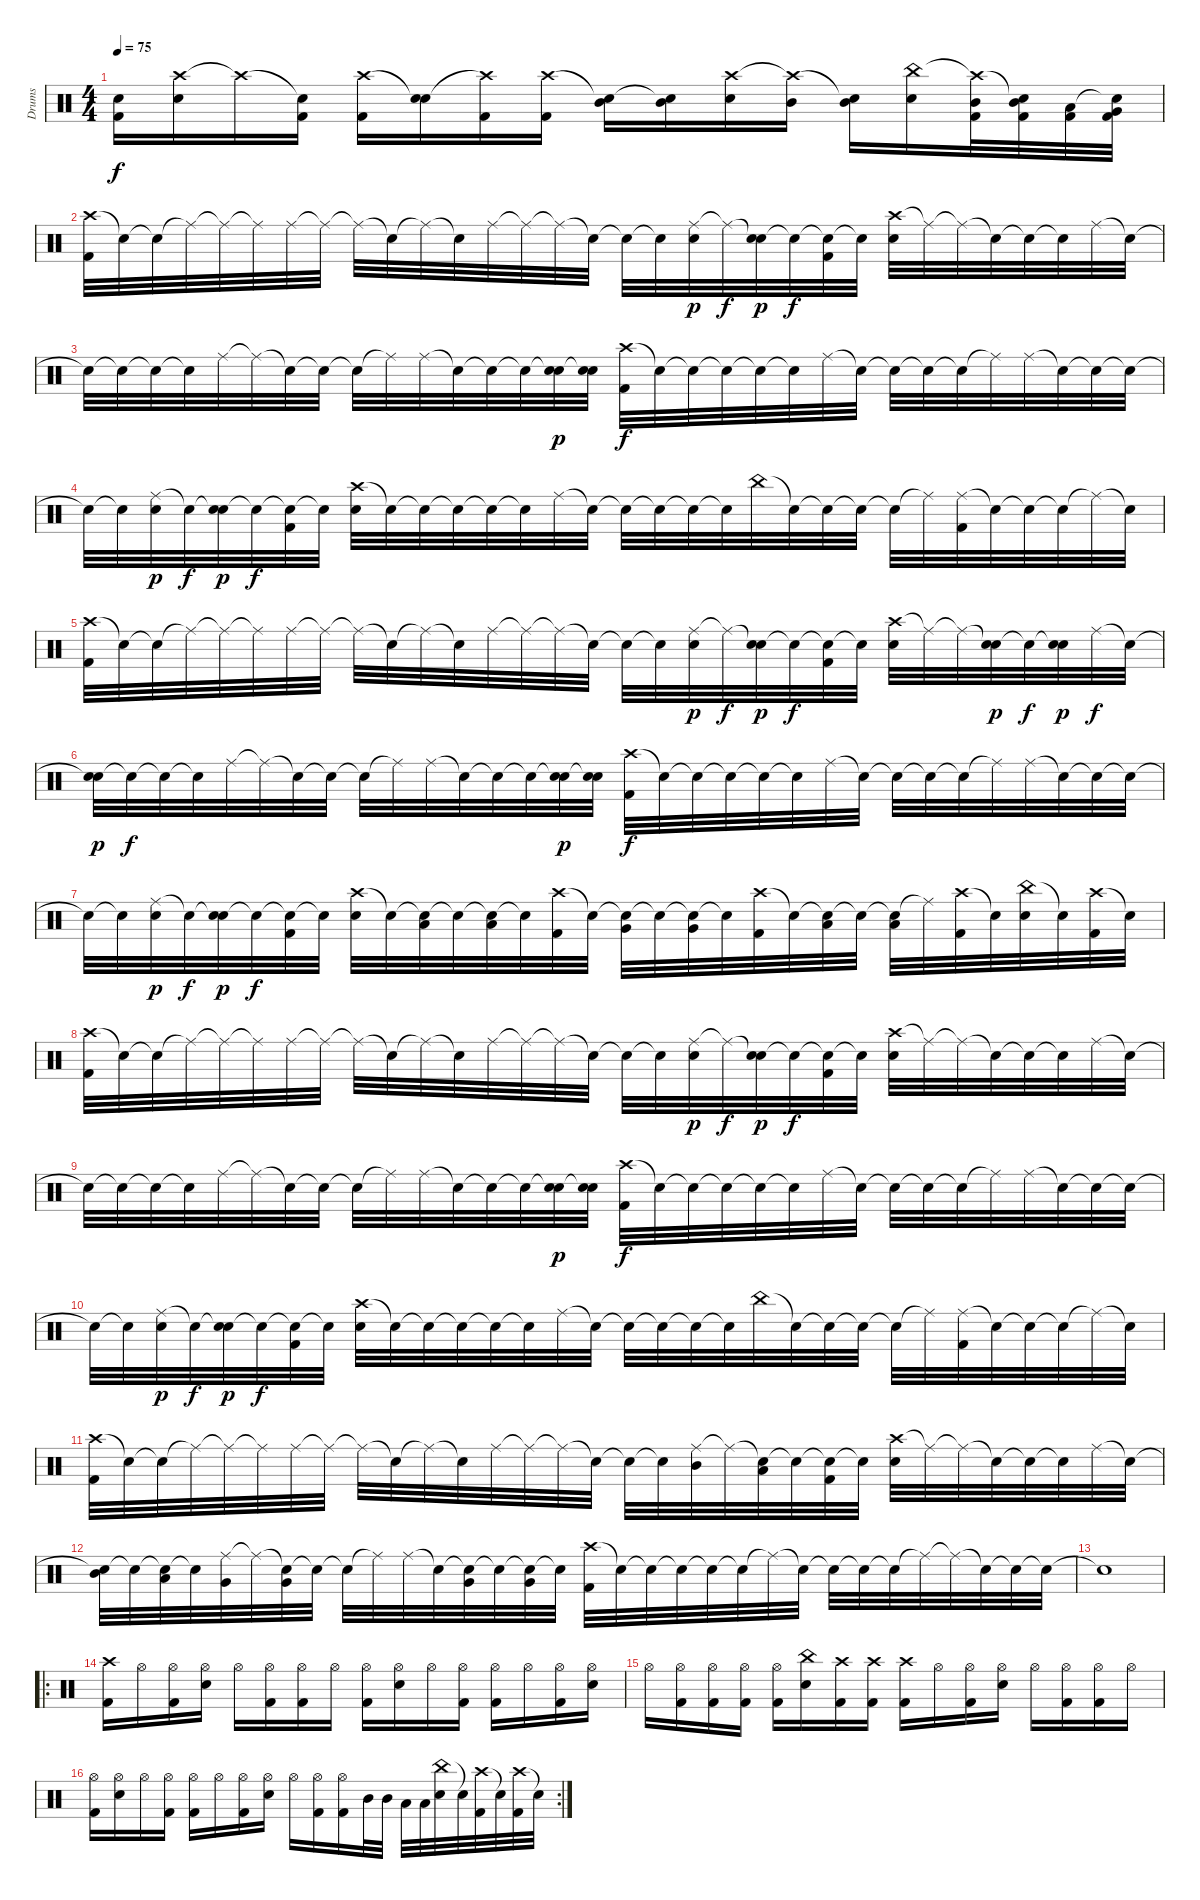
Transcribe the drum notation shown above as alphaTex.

\track ("Drums" "Drums") {instrument percussion}
\staff {score}
\articulation defaults
\ts (4 4)
\tempo 75
\clef neutral
\ks c
("Snare (hit)"{t} "Kick (hit) 2").16{dy f} ("Crash high (hit)" "Electric Snare (hit)").16 "Crash high (hit)"{t}.16 ("Snare (hit)"{t} "Kick (hit) 2").16 ("Crash high (hit)" "Kick (hit) 2").16 ("Snare (hit)"{t} "Electric Snare (hit)").16 ("Crash high (hit)"{t} "Kick (hit) 2").16 ("Crash high (hit)" "Kick (hit) 2").16 ("Snare (hit)"{t} "Mid Tom (hit)").16 ("Snare (hit)"{t} "Mid Tom (hit)").16 ("Crash high (hit)" "Electric Snare (hit)").16 ("Crash high (hit)"{t} "Mid Tom (hit)").16 ("Snare (hit)"{t} "Mid Tom (hit)").16 ("China (hit)" "Electric Snare (hit)").16 ("Crash high (hit)"{t} "Mid Tom (hit)" "Kick (hit) 2").32 ("Snare (hit)"{t} "Mid Tom (hit)" "Kick (hit) 2").32 ("Low Tom (hit)" "Kick (hit) 2").32 ("Snare (hit)"{t} "Very Low Tom (hit)" "Kick (hit) 2").32 |
("Crash high (hit)" "Kick (hit) 2").32 "Snare (hit)"{t}.32 "Snare (hit)"{t}.32 "Ride (middle)"{t}.32 "Ride (middle)"{t}.32 "Ride (middle)"{t}.32 "Ride (middle)".32 "Ride (middle)"{t}.32 "Ride (middle)"{t}.32 "Snare (hit)"{t}.32 "Ride (middle)"{t}.32 "Snare (hit)"{t}.32 "Ride (middle)".32 "Ride (middle)"{t}.32 "Ride (middle)"{t}.32 "Snare (hit)"{t}.32 "Snare (hit)"{t}.32 "Snare (hit)"{t}.32 ("Ride (middle)" "Electric Snare (hit)").32{dy p} "Ride (middle)"{t}.32{dy f} ("Snare (hit)"{t} "Electric Snare (hit)").32{dy p} "Snare (hit)"{t}.32{dy f} ("Snare (hit)"{t} "Kick (hit) 2").32 "Snare (hit)"{t}.32 ("Crash high (hit)" "Electric Snare (hit)").32 "Ride (middle)"{t}.32 "Ride (middle)"{t}.32 "Snare (hit)"{t}.32 "Snare (hit)"{t}.32 "Snare (hit)"{t}.32 "Ride (middle)".32 "Snare (hit)"{t}.32 |
"Snare (hit)"{t}.32 "Snare (hit)"{t}.32 "Snare (hit)"{t}.32 "Snare (hit)"{t}.32 "Ride (middle)".32 "Ride (middle)"{t}.32 "Snare (hit)"{t}.32 "Snare (hit)"{t}.32 "Snare (hit)"{t}.32 "Ride (middle)"{t}.32 "Ride (middle)".32 "Snare (hit)"{t}.32 "Snare (hit)"{t}.32 "Snare (hit)"{t}.32 ("Snare (hit)"{t} "Electric Snare (hit)").32{dy p} ("Snare (hit)"{t} "Electric Snare (hit)").32 ("Crash high (hit)" "Kick (hit) 2").32{dy f} "Snare (hit)"{t}.32 "Snare (hit)"{t}.32 "Snare (hit)"{t}.32 "Snare (hit)"{t}.32 "Snare (hit)"{t}.32 "Ride (middle)".32 "Snare (hit)"{t}.32 "Snare (hit)"{t}.32 "Snare (hit)"{t}.32 "Snare (hit)"{t}.32 "Ride (middle)"{t}.32 "Ride (middle)".32 "Snare (hit)"{t}.32 "Snare (hit)"{t}.32 "Snare (hit)"{t}.32 |
"Snare (hit)"{t}.32 "Snare (hit)"{t}.32 ("Ride (middle)" "Electric Snare (hit)").32{dy p} "Snare (hit)"{t}.32{dy f} ("Snare (hit)"{t} "Electric Snare (hit)").32{dy p} "Snare (hit)"{t}.32{dy f} ("Snare (hit)"{t} "Kick (hit) 2").32 "Snare (hit)"{t}.32 ("Crash high (hit)" "Electric Snare (hit)").32 "Snare (hit)"{t}.32 "Snare (hit)"{t}.32 "Snare (hit)"{t}.32 "Snare (hit)"{t}.32 "Snare (hit)"{t}.32 "Ride (middle)".32 "Snare (hit)"{t}.32 "Snare (hit)"{t}.32 "Snare (hit)"{t}.32 "Snare (hit)"{t}.32 "Snare (hit)"{t}.32 "China (hit)".32 "Snare (hit)"{t}.32 "Snare (hit)"{t}.32 "Snare (hit)"{t}.32 "Snare (hit)"{t}.32 "Ride (middle)"{t}.32 ("Ride (middle)" "Kick (hit) 2").32 "Snare (hit)"{t}.32 "Snare (hit)"{t}.32 "Snare (hit)"{t}.32 "Ride (middle)"{t}.32 "Snare (hit)"{t}.32 |
("Crash high (hit)" "Kick (hit) 2").32 "Snare (hit)"{t}.32 "Snare (hit)"{t}.32 "Ride (middle)"{t}.32 "Ride (middle)"{t}.32 "Ride (middle)"{t}.32 "Ride (middle)".32 "Ride (middle)"{t}.32 "Ride (middle)"{t}.32 "Snare (hit)"{t}.32 "Ride (middle)"{t}.32 "Snare (hit)"{t}.32 "Ride (middle)".32 "Ride (middle)"{t}.32 "Ride (middle)"{t}.32 "Snare (hit)"{t}.32 "Snare (hit)"{t}.32 "Snare (hit)"{t}.32 ("Ride (middle)" "Electric Snare (hit)").32{dy p} "Ride (middle)"{t}.32{dy f} ("Snare (hit)"{t} "Electric Snare (hit)").32{dy p} "Snare (hit)"{t}.32{dy f} ("Snare (hit)"{t} "Kick (hit) 2").32 "Snare (hit)"{t}.32 ("Crash high (hit)" "Electric Snare (hit)").32 "Ride (middle)"{t}.32 "Ride (middle)"{t}.32 ("Snare (hit)"{t} "Electric Snare (hit)").32{dy p} "Snare (hit)"{t}.32{dy f} ("Snare (hit)"{t} "Electric Snare (hit)").32{dy p} "Ride (middle)".32{dy f} "Snare (hit)"{t}.32 |
("Snare (hit)"{t} "Electric Snare (hit)").32{dy p} "Snare (hit)"{t}.32{dy f} "Snare (hit)"{t}.32 "Snare (hit)"{t}.32 "Ride (middle)".32 "Ride (middle)"{t}.32 "Snare (hit)"{t}.32 "Snare (hit)"{t}.32 "Snare (hit)"{t}.32 "Ride (middle)"{t}.32 "Ride (middle)".32 "Snare (hit)"{t}.32 "Snare (hit)"{t}.32 "Snare (hit)"{t}.32 ("Snare (hit)"{t} "Electric Snare (hit)").32{dy p} ("Snare (hit)"{t} "Electric Snare (hit)").32 ("Crash high (hit)" "Kick (hit) 2").32{dy f} "Snare (hit)"{t}.32 "Snare (hit)"{t}.32 "Snare (hit)"{t}.32 "Snare (hit)"{t}.32 "Snare (hit)"{t}.32 "Ride (middle)".32 "Snare (hit)"{t}.32 "Snare (hit)"{t}.32 "Snare (hit)"{t}.32 "Snare (hit)"{t}.32 "Ride (middle)"{t}.32 "Ride (middle)".32 "Snare (hit)"{t}.32 "Snare (hit)"{t}.32 "Snare (hit)"{t}.32 |
"Snare (hit)"{t}.32 "Snare (hit)"{t}.32 ("Ride (middle)" "Electric Snare (hit)").32{dy p} "Snare (hit)"{t}.32{dy f} ("Snare (hit)"{t} "Electric Snare (hit)").32{dy p} "Snare (hit)"{t}.32{dy f} ("Snare (hit)"{t} "Kick (hit) 2").32 "Snare (hit)"{t}.32 ("Crash high (hit)" "Electric Snare (hit)").32 "Snare (hit)"{t}.32 ("Snare (hit)"{t} "Low Tom (hit)").32 "Snare (hit)"{t}.32 ("Snare (hit)"{t} "Low Tom (hit)").32 "Snare (hit)"{t}.32 ("Crash high (hit)" "Kick (hit) 2").32 "Snare (hit)"{t}.32 ("Snare (hit)"{t} "Very Low Tom (hit)").32 "Snare (hit)"{t}.32 ("Snare (hit)"{t} "Very Low Tom (hit)").32 "Snare (hit)"{t}.32 ("Crash high (hit)" "Kick (hit) 2").32 "Snare (hit)"{t}.32 ("Snare (hit)"{t} "Low Floor Tom (hit)").32 "Snare (hit)"{t}.32 ("Snare (hit)"{t} "Low Floor Tom (hit)").32 "Ride (middle)"{t}.32 ("Crash high (hit)" "Kick (hit) 2").32 "Snare (hit)"{t}.32 ("China (hit)" "Electric Snare (hit)").32 "Snare (hit)"{t}.32 ("Crash high (hit)" "Kick (hit) 2").32 "Snare (hit)"{t}.32 |
("Crash high (hit)" "Kick (hit) 2").32 "Snare (hit)"{t}.32 "Snare (hit)"{t}.32 "Ride (middle)"{t}.32 "Ride (middle)"{t}.32 "Ride (middle)"{t}.32 "Ride (middle)".32 "Ride (middle)"{t}.32 "Ride (middle)"{t}.32 "Snare (hit)"{t}.32 "Ride (middle)"{t}.32 "Snare (hit)"{t}.32 "Ride (middle)".32 "Ride (middle)"{t}.32 "Ride (middle)"{t}.32 "Snare (hit)"{t}.32 "Snare (hit)"{t}.32 "Snare (hit)"{t}.32 ("Ride (middle)" "Electric Snare (hit)").32{dy p} "Ride (middle)"{t}.32{dy f} ("Snare (hit)"{t} "Electric Snare (hit)").32{dy p} "Snare (hit)"{t}.32{dy f} ("Snare (hit)"{t} "Kick (hit) 2").32 "Snare (hit)"{t}.32 ("Crash high (hit)" "Electric Snare (hit)").32 "Ride (middle)"{t}.32 "Ride (middle)"{t}.32 "Snare (hit)"{t}.32 "Snare (hit)"{t}.32 "Snare (hit)"{t}.32 "Ride (middle)".32 "Snare (hit)"{t}.32 |
"Snare (hit)"{t}.32 "Snare (hit)"{t}.32 "Snare (hit)"{t}.32 "Snare (hit)"{t}.32 "Ride (middle)".32 "Ride (middle)"{t}.32 "Snare (hit)"{t}.32 "Snare (hit)"{t}.32 "Snare (hit)"{t}.32 "Ride (middle)"{t}.32 "Ride (middle)".32 "Snare (hit)"{t}.32 "Snare (hit)"{t}.32 "Snare (hit)"{t}.32 ("Snare (hit)"{t} "Electric Snare (hit)").32{dy p} ("Snare (hit)"{t} "Electric Snare (hit)").32 ("Crash high (hit)" "Kick (hit) 2").32{dy f} "Snare (hit)"{t}.32 "Snare (hit)"{t}.32 "Snare (hit)"{t}.32 "Snare (hit)"{t}.32 "Snare (hit)"{t}.32 "Ride (middle)".32 "Snare (hit)"{t}.32 "Snare (hit)"{t}.32 "Snare (hit)"{t}.32 "Snare (hit)"{t}.32 "Ride (middle)"{t}.32 "Ride (middle)".32 "Snare (hit)"{t}.32 "Snare (hit)"{t}.32 "Snare (hit)"{t}.32 |
"Snare (hit)"{t}.32 "Snare (hit)"{t}.32 ("Ride (middle)" "Electric Snare (hit)").32{dy p} "Snare (hit)"{t}.32{dy f} ("Snare (hit)"{t} "Electric Snare (hit)").32{dy p} "Snare (hit)"{t}.32{dy f} ("Snare (hit)"{t} "Kick (hit) 2").32 "Snare (hit)"{t}.32 ("Crash high (hit)" "Electric Snare (hit)").32 "Snare (hit)"{t}.32 "Snare (hit)"{t}.32 "Snare (hit)"{t}.32 "Snare (hit)"{t}.32 "Snare (hit)"{t}.32 "Ride (middle)".32 "Snare (hit)"{t}.32 "Snare (hit)"{t}.32 "Snare (hit)"{t}.32 "Snare (hit)"{t}.32 "Snare (hit)"{t}.32 "China (hit)".32 "Snare (hit)"{t}.32 "Snare (hit)"{t}.32 "Snare (hit)"{t}.32 "Snare (hit)"{t}.32 "Ride (middle)"{t}.32 ("Ride (middle)" "Kick (hit) 2").32 "Snare (hit)"{t}.32 "Snare (hit)"{t}.32 "Snare (hit)"{t}.32 "Ride (middle)"{t}.32 "Snare (hit)"{t}.32 |
("Crash high (hit)" "Kick (hit) 2").32 "Snare (hit)"{t}.32 "Snare (hit)"{t}.32 "Ride (middle)"{t}.32 "Ride (middle)"{t}.32 "Ride (middle)"{t}.32 "Ride (middle)".32 "Ride (middle)"{t}.32 "Ride (middle)"{t}.32 "Snare (hit)"{t}.32 "Ride (middle)"{t}.32 "Snare (hit)"{t}.32 "Ride (middle)".32 "Ride (middle)"{t}.32 "Ride (middle)"{t}.32 "Snare (hit)"{t}.32 "Snare (hit)"{t}.32 "Snare (hit)"{t}.32 ("Ride (middle)" "Mid Tom (hit)").32 "Ride (middle)"{t}.32 ("Snare (hit)"{t} "Low Tom (hit)").32 "Snare (hit)"{t}.32 ("Snare (hit)"{t} "Kick (hit) 2").32 "Snare (hit)"{t}.32 ("Crash high (hit)" "Electric Snare (hit)").32 "Ride (middle)"{t}.32 "Ride (middle)"{t}.32 "Snare (hit)"{t}.32 "Snare (hit)"{t}.32 "Snare (hit)"{t}.32 "Ride (middle)".32 "Snare (hit)"{t}.32 |
("Snare (hit)"{t} "Mid Tom (hit)").32 "Snare (hit)"{t}.32 ("Snare (hit)"{t} "Low Tom (hit)").32 "Snare (hit)"{t}.32 ("Ride (middle)" "Very Low Tom (hit)").32 "Ride (middle)"{t}.32 ("Snare (hit)"{t} "Very Low Tom (hit)").32 "Snare (hit)"{t}.32 "Snare (hit)"{t}.32 "Ride (middle)"{t}.32 "Ride (middle)".32 "Snare (hit)"{t}.32 ("Snare (hit)"{t} "Very Low Tom (hit)").32 "Snare (hit)"{t}.32 ("Snare (hit)"{t} "Very Low Tom (hit)").32 "Snare (hit)"{t}.32 ("Crash high (hit)" "Kick (hit) 2").32 "Snare (hit)"{t}.32 "Snare (hit)"{t}.32 "Snare (hit)"{t}.32 "Snare (hit)"{t}.32 "Snare (hit)"{t}.32 "Ride (middle)"{t}.32 "Snare (hit)"{t}.32 "Snare (hit)"{t}.32 "Snare (hit)"{t}.32 "Snare (hit)"{t}.32 "Ride (middle)"{t}.32 "Ride (middle)"{t}.32 "Snare (hit)"{t}.32 "Snare (hit)"{t}.32 "Snare (hit)"{t}.32 |
"Snare (hit)"{t}.1 |
\ro
("Crash high (hit)" "Kick (hit) 2").16 "Hi-Hat (open)".16 ("Hi-Hat (open)" "Kick (hit) 2").16 ("Hi-Hat (open)" "Electric Snare (hit)").16 "Hi-Hat (open)".16 ("Hi-Hat (open)" "Kick (hit) 2").16 ("Hi-Hat (open)" "Kick (hit) 2").16 "Hi-Hat (open)".16 ("Hi-Hat (open)" "Kick (hit) 2").16 ("Hi-Hat (open)" "Electric Snare (hit)").16 "Hi-Hat (open)".16 ("Hi-Hat (open)" "Kick (hit) 2").16 ("Hi-Hat (open)" "Kick (hit) 2").16 "Hi-Hat (open)".16 ("Hi-Hat (open)" "Kick (hit) 2").16 ("Hi-Hat (open)" "Electric Snare (hit)").16 |
"Hi-Hat (open)".16 ("Hi-Hat (open)" "Kick (hit) 2").16 ("Hi-Hat (open)" "Kick (hit) 2").16 ("Hi-Hat (open)" "Kick (hit) 2").16 ("Hi-Hat (open)" "Kick (hit) 2").16 ("China (hit)" "Electric Snare (hit)").16 ("Crash high (hit)" "Kick (hit) 2").16 ("Crash high (hit)" "Kick (hit) 2").16 ("Crash high (hit)" "Kick (hit) 2").16 "Hi-Hat (open)".16 ("Hi-Hat (open)" "Kick (hit) 2").16 ("Hi-Hat (open)" "Electric Snare (hit)").16 "Hi-Hat (open)".16 ("Hi-Hat (open)" "Kick (hit) 2").16 ("Hi-Hat (open)" "Kick (hit) 2").16 "Hi-Hat (open)".16 |
\rc 2
("Hi-Hat (open)" "Kick (hit) 2").16 ("Hi-Hat (open)" "Electric Snare (hit)").16 "Hi-Hat (open)".16 ("Hi-Hat (open)" "Kick (hit) 2").16 ("Hi-Hat (open)" "Kick (hit) 2").16 "Hi-Hat (open)".16 ("Hi-Hat (open)" "Kick (hit) 2").16 ("Hi-Hat (open)" "Electric Snare (hit)").16 "Hi-Hat (open)".16 ("Hi-Hat (open)" "Kick (hit) 2").16 ("Hi-Hat (open)" "Kick (hit) 2").16 "Mid Tom (hit)".32 "Mid Tom (hit)".32 "Low Tom (hit)".32 "Low Tom (hit)".32 ("China (hit)" "Electric Snare (hit)").32 "Snare (hit)"{t}.32 ("Crash high (hit)" "Kick (hit) 2").32 "Snare (hit)"{t}.32 ("Crash high (hit)" "Kick (hit) 2").32 "Snare (hit)"{t}.32
